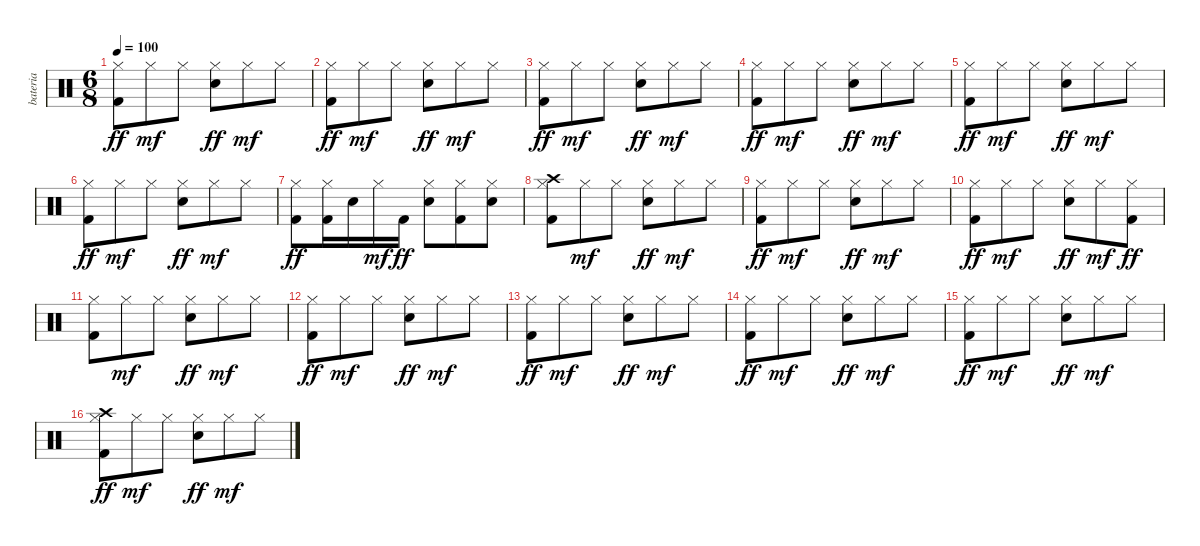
\track ("bateria" "bateria") {instrument percussion}
\staff {score}
\articulation defaults
\ts (6 8)
\tempo 100
\clef neutral
\ks c
("Hi-Hat (closed)" "Kick (hit) 2").8{dy ff} "Hi-Hat (closed)".8{dy mf} "Hi-Hat (closed)".8 ("Hi-Hat (closed)" "Snare (hit) 2").8{dy ff} "Hi-Hat (closed)".8{dy mf} "Hi-Hat (closed)".8 |
("Hi-Hat (closed)" "Kick (hit) 2").8{dy ff} "Hi-Hat (closed)".8{dy mf} "Hi-Hat (closed)".8 ("Hi-Hat (closed)" "Snare (hit) 2").8{dy ff} "Hi-Hat (closed)".8{dy mf} "Hi-Hat (closed)".8 |
("Hi-Hat (closed)" "Kick (hit) 2").8{dy ff} "Hi-Hat (closed)".8{dy mf} "Hi-Hat (closed)".8 ("Hi-Hat (closed)" "Snare (hit) 2").8{dy ff} "Hi-Hat (closed)".8{dy mf} "Hi-Hat (closed)".8 |
("Hi-Hat (closed)" "Kick (hit) 2").8{dy ff} "Hi-Hat (closed)".8{dy mf} "Hi-Hat (closed)".8 ("Hi-Hat (closed)" "Snare (hit) 2").8{dy ff} "Hi-Hat (closed)".8{dy mf} "Hi-Hat (closed)".8 |
("Hi-Hat (closed)" "Kick (hit) 2").8{dy ff} "Hi-Hat (closed)".8{dy mf} "Hi-Hat (closed)".8 ("Hi-Hat (closed)" "Snare (hit) 2").8{dy ff} "Hi-Hat (closed)".8{dy mf} "Hi-Hat (closed)".8 |
("Hi-Hat (closed)" "Kick (hit) 2").8{dy ff} "Hi-Hat (closed)".8{dy mf} "Hi-Hat (closed)".8 ("Hi-Hat (closed)" "Snare (hit) 2").8{dy ff} "Hi-Hat (closed)".8{dy mf} "Hi-Hat (closed)".8 |
("Hi-Hat (closed)" "Kick (hit) 2").8{dy ff} ("Hi-Hat (closed)" "Kick (hit) 2").16 "Snare (hit) 2".16 "Hi-Hat (closed)".16{dy mf} "Kick (hit) 2".16{dy ff} ("Hi-Hat (closed)" "Snare (hit) 2").8 ("Hi-Hat (closed)" "Kick (hit) 2").8 ("Hi-Hat (closed)" "Snare (hit) 2").8 |
("Crash high (hit)" "Hi-Hat (closed)" "Kick (hit) 2").8 "Hi-Hat (closed)".8{dy mf} "Hi-Hat (closed)".8 ("Hi-Hat (closed)" "Snare (hit) 2").8{dy ff} "Hi-Hat (closed)".8{dy mf} "Hi-Hat (closed)".8 |
("Hi-Hat (closed)" "Kick (hit) 2").8{dy ff} "Hi-Hat (closed)".8{dy mf} "Hi-Hat (closed)".8 ("Hi-Hat (closed)" "Snare (hit) 2").8{dy ff} "Hi-Hat (closed)".8{dy mf} "Hi-Hat (closed)".8 |
("Hi-Hat (closed)" "Kick (hit) 2").8{dy ff} "Hi-Hat (closed)".8{dy mf} "Hi-Hat (closed)".8 ("Hi-Hat (closed)" "Snare (hit) 2").8{dy ff} "Hi-Hat (closed)".8{dy mf} ("Hi-Hat (closed)" "Kick (hit) 2").8{dy ff} |
("Hi-Hat (closed)" "Kick (hit) 2").8 "Hi-Hat (closed)".8{dy mf} "Hi-Hat (closed)".8 ("Hi-Hat (closed)" "Snare (hit) 2").8{dy ff} "Hi-Hat (closed)".8{dy mf} "Hi-Hat (closed)".8 |
("Hi-Hat (closed)" "Kick (hit) 2").8{dy ff} "Hi-Hat (closed)".8{dy mf} "Hi-Hat (closed)".8 ("Hi-Hat (closed)" "Snare (hit) 2").8{dy ff} "Hi-Hat (closed)".8{dy mf} "Hi-Hat (closed)".8 |
("Hi-Hat (closed)" "Kick (hit) 2").8{dy ff} "Hi-Hat (closed)".8{dy mf} "Hi-Hat (closed)".8 ("Hi-Hat (closed)" "Snare (hit) 2").8{dy ff} "Hi-Hat (closed)".8{dy mf} "Hi-Hat (closed)".8 |
("Hi-Hat (closed)" "Kick (hit) 2").8{dy ff} "Hi-Hat (closed)".8{dy mf} "Hi-Hat (closed)".8 ("Hi-Hat (closed)" "Snare (hit) 2").8{dy ff} "Hi-Hat (closed)".8{dy mf} "Hi-Hat (closed)".8 |
("Hi-Hat (closed)" "Kick (hit) 2").8{dy ff} "Hi-Hat (closed)".8{dy mf} "Hi-Hat (closed)".8 ("Hi-Hat (closed)" "Snare (hit) 2").8{dy ff} "Hi-Hat (closed)".8{dy mf} "Hi-Hat (closed)".8 |
("Crash high (hit)" "Hi-Hat (closed)" "Kick (hit) 2").8{dy ff} "Hi-Hat (closed)".8{dy mf} "Hi-Hat (closed)".8 ("Hi-Hat (closed)" "Snare (hit) 2").8{dy ff} "Hi-Hat (closed)".8{dy mf} "Hi-Hat (closed)".8
